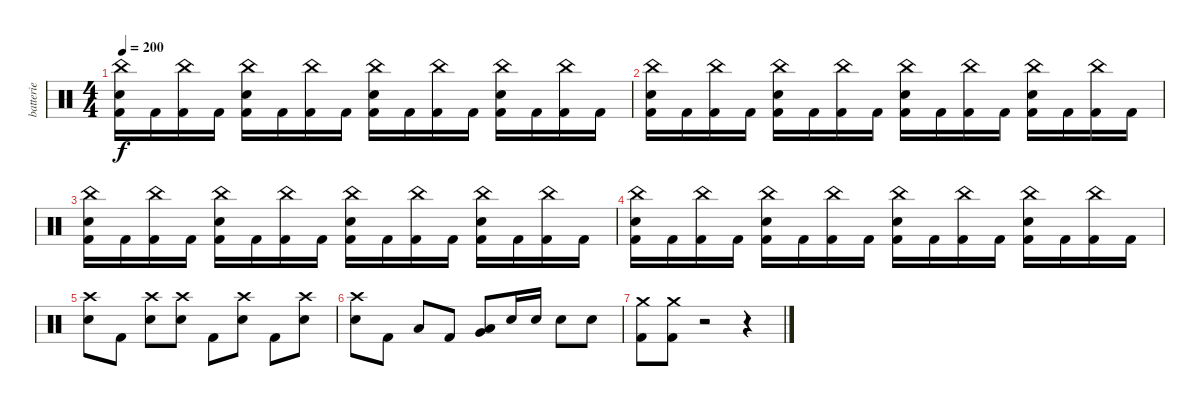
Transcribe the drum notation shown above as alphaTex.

\track ("batterie" "batterie") {instrument percussion}
\staff {score}
\articulation defaults
\ts (4 4)
\tempo 200
\clef neutral
\ks c
("Kick (hit) 2" "Electric Snare (hit)" "China (hit)").16{dy f} "Kick (hit) 2".16 ("Kick (hit) 2" "China (hit)").16 "Kick (hit) 2".16 ("Kick (hit) 2" "Electric Snare (hit)" "China (hit)").16 "Kick (hit) 2".16 ("Kick (hit) 2" "China (hit)").16 "Kick (hit) 2".16 ("Kick (hit) 2" "Electric Snare (hit)" "China (hit)").16 "Kick (hit) 2".16 ("Kick (hit) 2" "China (hit)").16 "Kick (hit) 2".16 ("Kick (hit) 2" "Electric Snare (hit)" "China (hit)").16 "Kick (hit) 2".16 ("Kick (hit) 2" "China (hit)").16 "Kick (hit) 2".16 |
("Kick (hit) 2" "Electric Snare (hit)" "China (hit)").16 "Kick (hit) 2".16 ("Kick (hit) 2" "China (hit)").16 "Kick (hit) 2".16 ("Kick (hit) 2" "Electric Snare (hit)" "China (hit)").16 "Kick (hit) 2".16 ("Kick (hit) 2" "China (hit)").16 "Kick (hit) 2".16 ("Kick (hit) 2" "Electric Snare (hit)" "China (hit)").16 "Kick (hit) 2".16 ("Kick (hit) 2" "China (hit)").16 "Kick (hit) 2".16 ("Kick (hit) 2" "Electric Snare (hit)" "China (hit)").16 "Kick (hit) 2".16 ("Kick (hit) 2" "China (hit)").16 "Kick (hit) 2".16 |
("Kick (hit) 2" "Electric Snare (hit)" "China (hit)").16 "Kick (hit) 2".16 ("Kick (hit) 2" "China (hit)").16 "Kick (hit) 2".16 ("Kick (hit) 2" "Electric Snare (hit)" "China (hit)").16 "Kick (hit) 2".16 ("Kick (hit) 2" "China (hit)").16 "Kick (hit) 2".16 ("Kick (hit) 2" "Electric Snare (hit)" "China (hit)").16 "Kick (hit) 2".16 ("Kick (hit) 2" "China (hit)").16 "Kick (hit) 2".16 ("Kick (hit) 2" "Electric Snare (hit)" "China (hit)").16 "Kick (hit) 2".16 ("Kick (hit) 2" "China (hit)").16 "Kick (hit) 2".16 |
("Kick (hit) 2" "Electric Snare (hit)" "China (hit)").16 "Kick (hit) 2".16 ("Kick (hit) 2" "China (hit)").16 "Kick (hit) 2".16 ("Kick (hit) 2" "Electric Snare (hit)" "China (hit)").16 "Kick (hit) 2".16 ("Kick (hit) 2" "China (hit)").16 "Kick (hit) 2".16 ("Kick (hit) 2" "Electric Snare (hit)" "China (hit)").16 "Kick (hit) 2".16 ("Kick (hit) 2" "China (hit)").16 "Kick (hit) 2".16 ("Kick (hit) 2" "Electric Snare (hit)" "China (hit)").16 "Kick (hit) 2".16 ("Kick (hit) 2" "China (hit)").16 "Kick (hit) 2".16 |
("Electric Snare (hit)" "Crash high (hit)").8 "Kick (hit) 2".8 ("Electric Snare (hit)" "Crash high (hit)").8 ("Electric Snare (hit)" "Crash high (hit)").8 "Kick (hit) 2".8 ("Electric Snare (hit)" "Crash high (hit)").8 "Kick (hit) 2".8 ("Electric Snare (hit)" "Crash high (hit)").8 |
("Electric Snare (hit)" "Crash high (hit)").8 "Kick (hit) 2".8 "Low Tom (hit)".8 "Kick (hit) 2".8 ("Very Low Tom (hit)" "Low Tom (hit)").8 "Electric Snare (hit)".16 "Electric Snare (hit)".16 "Electric Snare (hit)".8 "Electric Snare (hit)".8 |
("Kick (hit) 2" "Crash medium (hit)").8 ("Kick (hit) 2" "Crash medium (hit)").8 r.2 r.4
